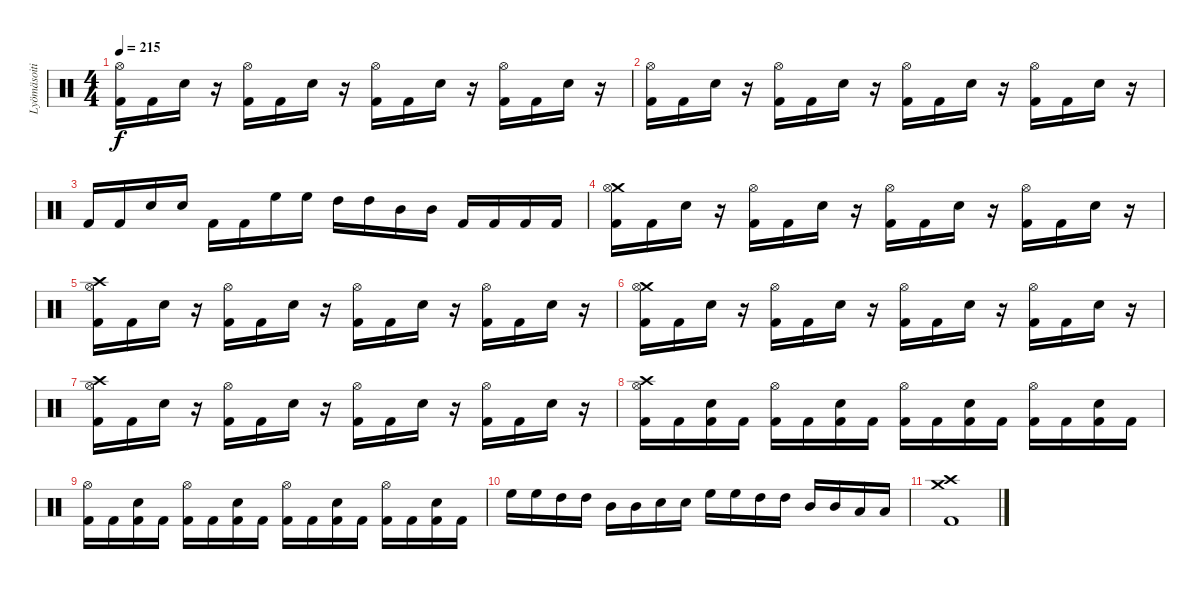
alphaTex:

\track ("Lyömäsoitin" "Lyömäsoiti") {instrument percussion}
\staff {score}
\articulation defaults
\ts (4 4)
\tempo 215
\clef neutral
\ks c
("Hi-Hat (open)" "Kick (hit) 2").16{dy f} "Kick (hit) 2".16 "Electric Snare (hit)".16 r.16 ("Hi-Hat (open)" "Kick (hit) 2").16 "Kick (hit) 2".16 "Electric Snare (hit)".16 r.16 ("Hi-Hat (open)" "Kick (hit) 2").16 "Kick (hit) 2".16 "Electric Snare (hit)".16 r.16 ("Hi-Hat (open)" "Kick (hit) 2").16 "Kick (hit) 2".16 "Electric Snare (hit)".16 r.16 |
("Hi-Hat (open)" "Kick (hit) 2").16 "Kick (hit) 2".16 "Electric Snare (hit)".16 r.16 ("Hi-Hat (open)" "Kick (hit) 2").16 "Kick (hit) 2".16 "Electric Snare (hit)".16 r.16 ("Hi-Hat (open)" "Kick (hit) 2").16 "Kick (hit) 2".16 "Electric Snare (hit)".16 r.16 ("Hi-Hat (open)" "Kick (hit) 2").16 "Kick (hit) 2".16 "Electric Snare (hit)".16 r.16 |
"Kick (hit) 2".16 "Kick (hit) 2".16 "Electric Snare (hit)".16 "Electric Snare (hit)".16 "Kick (hit) 2".16 "Kick (hit) 2".16 "High Floor Tom (hit)".16 "High Floor Tom (hit)".16 "High Tom (hit)".16 "High Tom (hit)".16 "Mid Tom (hit)".16 "Mid Tom (hit)".16 "Kick (hit) 2".16 "Kick (hit) 2".16 "Kick (hit) 2".16 "Kick (hit) 2".16 |
("Crash medium (hit)" "Hi-Hat (open)" "Kick (hit) 2").16 "Kick (hit) 2".16 "Electric Snare (hit)".16 r.16 ("Hi-Hat (open)" "Kick (hit) 2").16 "Kick (hit) 2".16 "Electric Snare (hit)".16 r.16 ("Hi-Hat (open)" "Kick (hit) 2").16 "Kick (hit) 2".16 "Electric Snare (hit)".16 r.16 ("Hi-Hat (open)" "Kick (hit) 2").16 "Kick (hit) 2".16 "Electric Snare (hit)".16 r.16 |
("Crash high (hit)" "Hi-Hat (open)" "Kick (hit) 2").16 "Kick (hit) 2".16 "Electric Snare (hit)".16 r.16 ("Hi-Hat (open)" "Kick (hit) 2").16 "Kick (hit) 2".16 "Electric Snare (hit)".16 r.16 ("Hi-Hat (open)" "Kick (hit) 2").16 "Kick (hit) 2".16 "Electric Snare (hit)".16 r.16 ("Hi-Hat (open)" "Kick (hit) 2").16 "Kick (hit) 2".16 "Electric Snare (hit)".16 r.16 |
("Crash medium (hit)" "Hi-Hat (open)" "Kick (hit) 2").16 "Kick (hit) 2".16 "Electric Snare (hit)".16 r.16 ("Hi-Hat (open)" "Kick (hit) 2").16 "Kick (hit) 2".16 "Electric Snare (hit)".16 r.16 ("Hi-Hat (open)" "Kick (hit) 2").16 "Kick (hit) 2".16 "Electric Snare (hit)".16 r.16 ("Hi-Hat (open)" "Kick (hit) 2").16 "Kick (hit) 2".16 "Electric Snare (hit)".16 r.16 |
("Crash high (hit)" "Hi-Hat (open)" "Kick (hit) 2").16 "Kick (hit) 2".16 "Electric Snare (hit)".16 r.16 ("Hi-Hat (open)" "Kick (hit) 2").16 "Kick (hit) 2".16 "Electric Snare (hit)".16 r.16 ("Hi-Hat (open)" "Kick (hit) 2").16 "Kick (hit) 2".16 "Electric Snare (hit)".16 r.16 ("Hi-Hat (open)" "Kick (hit) 2").16 "Kick (hit) 2".16 "Electric Snare (hit)".16 r.16 |
("Crash high (hit)" "Hi-Hat (open)" "Kick (hit) 2").16 "Kick (hit) 2".16 ("Electric Snare (hit)" "Kick (hit) 2").16 "Kick (hit) 2".16 ("Hi-Hat (open)" "Kick (hit) 2").16 "Kick (hit) 2".16 ("Electric Snare (hit)" "Kick (hit) 2").16 "Kick (hit) 2".16 ("Hi-Hat (open)" "Kick (hit) 2").16 "Kick (hit) 2".16 ("Electric Snare (hit)" "Kick (hit) 2").16 "Kick (hit) 2".16 ("Hi-Hat (open)" "Kick (hit) 2").16 "Kick (hit) 2".16 ("Electric Snare (hit)" "Kick (hit) 2").16 "Kick (hit) 2".16 |
("Hi-Hat (open)" "Kick (hit) 2").16 "Kick (hit) 2".16 ("Electric Snare (hit)" "Kick (hit) 2").16 "Kick (hit) 2".16 ("Hi-Hat (open)" "Kick (hit) 2").16 "Kick (hit) 2".16 ("Electric Snare (hit)" "Kick (hit) 2").16 "Kick (hit) 2".16 ("Hi-Hat (open)" "Kick (hit) 2").16 "Kick (hit) 2".16 ("Electric Snare (hit)" "Kick (hit) 2").16 "Kick (hit) 2".16 ("Hi-Hat (open)" "Kick (hit) 2").16 "Kick (hit) 2".16 ("Electric Snare (hit)" "Kick (hit) 2").16 "Kick (hit) 2".16 |
"High Floor Tom (hit)".16 "High Floor Tom (hit)".16 "High Tom (hit)".16 "High Tom (hit)".16 "Mid Tom (hit)".16 "Mid Tom (hit)".16 "Electric Snare (hit)".16 "Electric Snare (hit)".16 "High Floor Tom (hit)".16 "High Floor Tom (hit)".16 "High Tom (hit)".16 "High Tom (hit)".16 "Mid Tom (hit)".16 "Mid Tom (hit)".16 "Low Tom (hit)".16 "Low Tom (hit)".16 |
("Crash medium (hit)" "Crash high (hit)" "Kick (hit) 2").1
